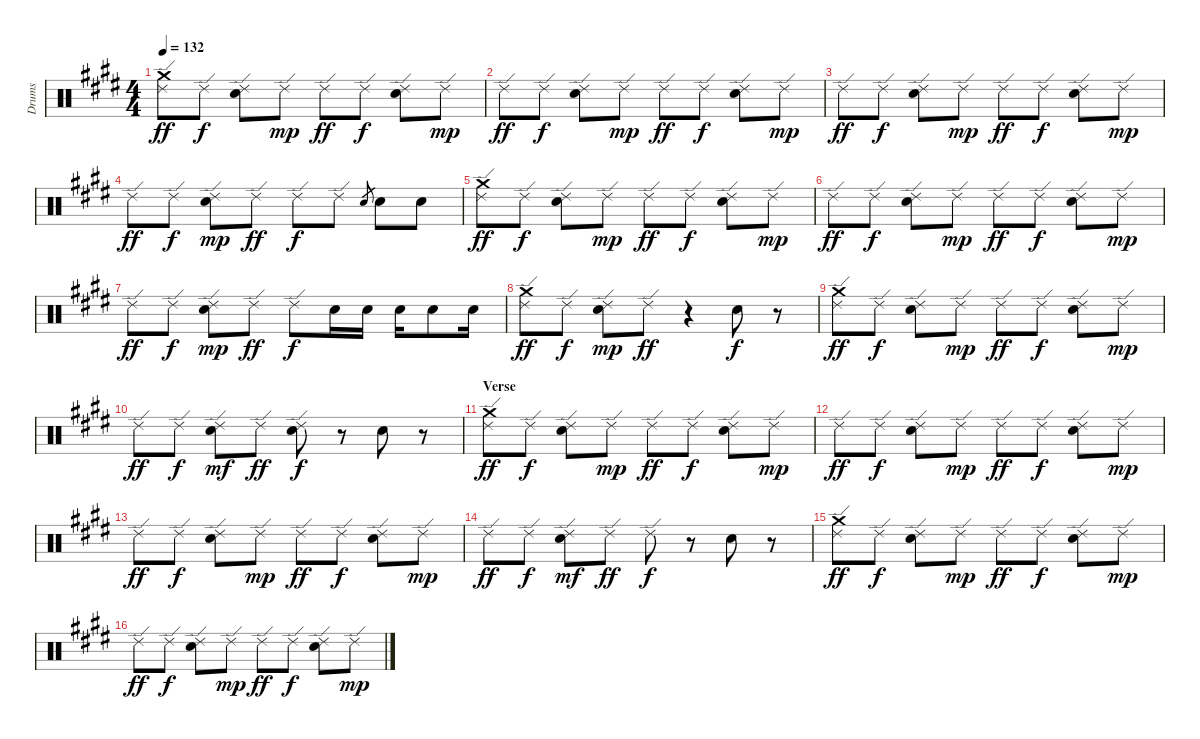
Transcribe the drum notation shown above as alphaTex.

\track ("Drums" "Drums") {instrument percussion}
\staff {score}
\articulation defaults
\ts (4 4)
\tempo 132
\clef neutral
\ks e
("Crash medium (hit)" "Ride (edge) 2").8{dy ff} "Ride (edge) 2".8{dy f} ("Electric Snare (hit)" "Ride (edge) 2").8 "Ride (edge) 2".8{dy mp} "Ride (edge) 2".8{dy ff} "Ride (edge) 2".8{dy f} ("Electric Snare (hit)" "Ride (edge) 2").8 "Ride (edge) 2".8{dy mp} |
"Ride (edge) 2".8{dy ff} "Ride (edge) 2".8{dy f} ("Electric Snare (hit)" "Ride (edge) 2").8 "Ride (edge) 2".8{dy mp} "Ride (edge) 2".8{dy ff} "Ride (edge) 2".8{dy f} ("Electric Snare (hit)" "Ride (edge) 2").8 "Ride (edge) 2".8{dy mp} |
"Ride (edge) 2".8{dy ff} "Ride (edge) 2".8{dy f} ("Electric Snare (hit)" "Ride (edge) 2").8 "Ride (edge) 2".8{dy mp} "Ride (edge) 2".8{dy ff} "Ride (edge) 2".8{dy f} ("Electric Snare (hit)" "Ride (edge) 2").8 "Ride (edge) 2".8{dy mp} |
"Ride (edge) 2".8{dy ff} "Ride (edge) 2".8{dy f} ("Electric Snare (hit)" "Ride (edge) 2").8{dy mp} "Ride (edge) 2".8{dy ff} "Ride (edge) 2".8{dy f} "Ride (edge) 2".8 "Electric Snare (hit)".8{gr} "Electric Snare (hit)".8 "Electric Snare (hit)".8 |
("Crash medium (hit)" "Ride (edge) 2").8{dy ff} "Ride (edge) 2".8{dy f} ("Electric Snare (hit)" "Ride (edge) 2").8 "Ride (edge) 2".8{dy mp} "Ride (edge) 2".8{dy ff} "Ride (edge) 2".8{dy f} ("Electric Snare (hit)" "Ride (edge) 2").8 "Ride (edge) 2".8{dy mp} |
"Ride (edge) 2".8{dy ff} "Ride (edge) 2".8{dy f} ("Electric Snare (hit)" "Ride (edge) 2").8 "Ride (edge) 2".8{dy mp} "Ride (edge) 2".8{dy ff} "Ride (edge) 2".8{dy f} ("Electric Snare (hit)" "Ride (edge) 2").8 "Ride (edge) 2".8{dy mp} |
"Ride (edge) 2".8{dy ff} "Ride (edge) 2".8{dy f} ("Electric Snare (hit)" "Ride (edge) 2").8{dy mp} "Ride (edge) 2".8{dy ff} "Ride (edge) 2".8{dy f} "Electric Snare (hit)".16 "Electric Snare (hit)".16 "Electric Snare (hit)".16 "Electric Snare (hit)".8 "Electric Snare (hit)".16 |
("Crash medium (hit)" "Ride (edge) 2").8{dy ff} "Ride (edge) 2".8{dy f} ("Electric Snare (hit)" "Ride (edge) 2").8{dy mp} "Ride (edge) 2".8{dy ff} r.4 "Electric Snare (hit)".8{dy f} r.8 |
("Crash medium (hit)" "Ride (edge) 2").8{dy ff} "Ride (edge) 2".8{dy f} ("Electric Snare (hit)" "Ride (edge) 2").8 "Ride (edge) 2".8{dy mp} "Ride (edge) 2".8{dy ff} "Ride (edge) 2".8{dy f} ("Electric Snare (hit)" "Ride (edge) 2").8 "Ride (edge) 2".8{dy mp} |
"Ride (edge) 2".8{dy ff} "Ride (edge) 2".8{dy f} ("Electric Snare (hit)" "Ride (edge) 2").8{dy mf} "Ride (edge) 2".8{dy ff} ("Electric Snare (hit)" "Ride (edge) 2").8{dy f} r.8 "Electric Snare (hit)".8 r.8 |
\section ("" "Verse")
("Crash medium (hit)" "Ride (edge) 2").8{dy ff} "Ride (edge) 2".8{dy f} ("Electric Snare (hit)" "Ride (edge) 2").8 "Ride (edge) 2".8{dy mp} "Ride (edge) 2".8{dy ff} "Ride (edge) 2".8{dy f} ("Electric Snare (hit)" "Ride (edge) 2").8 "Ride (edge) 2".8{dy mp} |
"Ride (edge) 2".8{dy ff} "Ride (edge) 2".8{dy f} ("Electric Snare (hit)" "Ride (edge) 2").8 "Ride (edge) 2".8{dy mp} "Ride (edge) 2".8{dy ff} "Ride (edge) 2".8{dy f} ("Electric Snare (hit)" "Ride (edge) 2").8 "Ride (edge) 2".8{dy mp} |
"Ride (edge) 2".8{dy ff} "Ride (edge) 2".8{dy f} ("Electric Snare (hit)" "Ride (edge) 2").8 "Ride (edge) 2".8{dy mp} "Ride (edge) 2".8{dy ff} "Ride (edge) 2".8{dy f} ("Electric Snare (hit)" "Ride (edge) 2").8 "Ride (edge) 2".8{dy mp} |
"Ride (edge) 2".8{dy ff} "Ride (edge) 2".8{dy f} ("Electric Snare (hit)" "Ride (edge) 2").8{dy mf} "Ride (edge) 2".8{dy ff} "Ride (edge) 2".8{dy f} r.8 "Electric Snare (hit)".8 r.8 |
("Crash medium (hit)" "Ride (edge) 2").8{dy ff} "Ride (edge) 2".8{dy f} ("Electric Snare (hit)" "Ride (edge) 2").8 "Ride (edge) 2".8{dy mp} "Ride (edge) 2".8{dy ff} "Ride (edge) 2".8{dy f} ("Electric Snare (hit)" "Ride (edge) 2").8 "Ride (edge) 2".8{dy mp} |
"Ride (edge) 2".8{dy ff} "Ride (edge) 2".8{dy f} ("Electric Snare (hit)" "Ride (edge) 2").8 "Ride (edge) 2".8{dy mp} "Ride (edge) 2".8{dy ff} "Ride (edge) 2".8{dy f} ("Electric Snare (hit)" "Ride (edge) 2").8 "Ride (edge) 2".8{dy mp}
